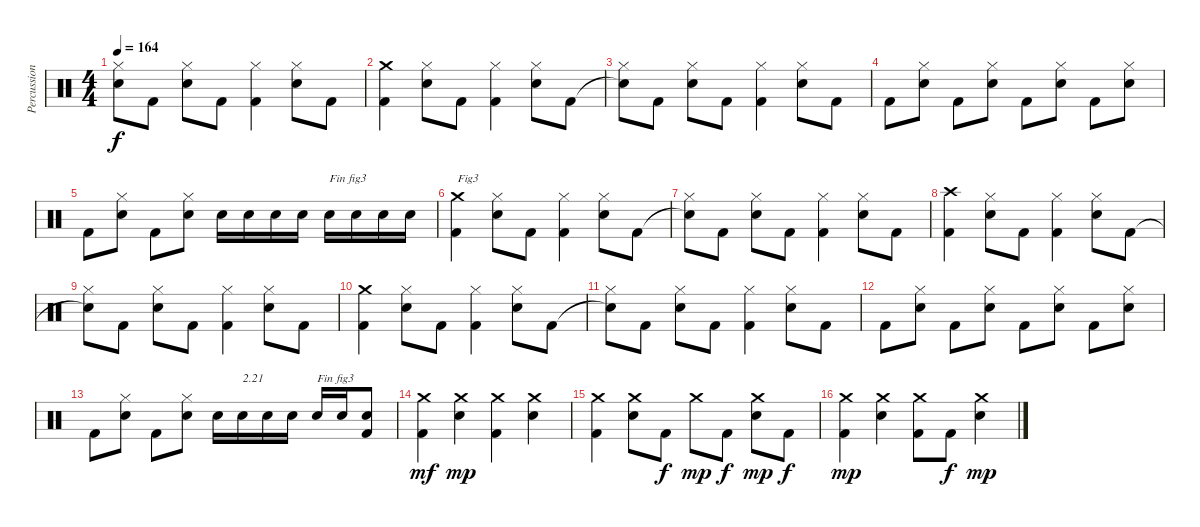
\track ("Percussions" "Percussion") {instrument percussion}
\staff {score}
\articulation defaults
\ts (4 4)
\tempo 164
\clef neutral
\ks c
("Snare (hit)"{t} "Hi-Hat (closed)").8{dy f} "Kick (hit) 2".8 ("Electric Snare (hit)" "Hi-Hat (closed)").8 "Kick (hit) 2".8 ("Kick (hit) 2" "Hi-Hat (closed)").4 ("Electric Snare (hit)" "Hi-Hat (closed)").8 "Kick (hit) 2".8 |
("Kick (hit) 2" "Crash medium (hit)").4 ("Electric Snare (hit)" "Hi-Hat (closed)").8 "Kick (hit) 2".8 ("Kick (hit) 2" "Hi-Hat (closed)").4 ("Electric Snare (hit)" "Hi-Hat (closed)").8 "Kick (hit) 2".8 |
("Snare (hit)"{t} "Hi-Hat (closed)").8 "Kick (hit) 2".8 ("Electric Snare (hit)" "Hi-Hat (closed)").8 "Kick (hit) 2".8 ("Kick (hit) 2" "Hi-Hat (closed)").4 ("Electric Snare (hit)" "Hi-Hat (closed)").8 "Kick (hit) 2".8 |
"Kick (hit) 2".8 ("Electric Snare (hit)" "Hi-Hat (closed)").8 "Kick (hit) 2".8 ("Electric Snare (hit)" "Hi-Hat (closed)").8 "Kick (hit) 2".8 ("Electric Snare (hit)" "Hi-Hat (closed)").8 "Kick (hit) 2".8 ("Electric Snare (hit)" "Hi-Hat (closed)").8 |
"Kick (hit) 2".8 ("Electric Snare (hit)" "Hi-Hat (closed)").8 "Kick (hit) 2".8 ("Electric Snare (hit)" "Hi-Hat (closed)").8 "Electric Snare (hit)".16 "Electric Snare (hit)".16 "Electric Snare (hit)".16 "Electric Snare (hit)".16 "Electric Snare (hit)".16{txt "Fin fig3"} "Electric Snare (hit)".16 "Electric Snare (hit)".16 "Electric Snare (hit)".16 |
("Kick (hit) 2" "Crash medium (hit)").4{txt "Fig3"} ("Electric Snare (hit)" "Hi-Hat (closed)").8 "Kick (hit) 2".8 ("Kick (hit) 2" "Hi-Hat (closed)").4 ("Electric Snare (hit)" "Hi-Hat (closed)").8 "Kick (hit) 2".8 |
("Snare (hit)"{t} "Hi-Hat (closed)").8 "Kick (hit) 2".8 ("Electric Snare (hit)" "Hi-Hat (closed)").8 "Kick (hit) 2".8 ("Kick (hit) 2" "Hi-Hat (closed)").4 ("Electric Snare (hit)" "Hi-Hat (closed)").8 "Kick (hit) 2".8 |
("Kick (hit) 2" "Crash high (hit)").4 ("Electric Snare (hit)" "Hi-Hat (closed)").8 "Kick (hit) 2".8 ("Kick (hit) 2" "Hi-Hat (closed)").4 ("Electric Snare (hit)" "Hi-Hat (closed)").8 "Kick (hit) 2".8 |
("Snare (hit)"{t} "Hi-Hat (closed)").8 "Kick (hit) 2".8 ("Electric Snare (hit)" "Hi-Hat (closed)").8 "Kick (hit) 2".8 ("Kick (hit) 2" "Hi-Hat (closed)").4 ("Electric Snare (hit)" "Hi-Hat (closed)").8 "Kick (hit) 2".8 |
("Kick (hit) 2" "Crash medium (hit)").4 ("Electric Snare (hit)" "Hi-Hat (closed)").8 "Kick (hit) 2".8 ("Kick (hit) 2" "Hi-Hat (closed)").4 ("Electric Snare (hit)" "Hi-Hat (closed)").8 "Kick (hit) 2".8 |
("Snare (hit)"{t} "Hi-Hat (closed)").8 "Kick (hit) 2".8 ("Electric Snare (hit)" "Hi-Hat (closed)").8 "Kick (hit) 2".8 ("Kick (hit) 2" "Hi-Hat (closed)").4 ("Electric Snare (hit)" "Hi-Hat (closed)").8 "Kick (hit) 2".8 |
"Kick (hit) 2".8 ("Electric Snare (hit)" "Hi-Hat (closed)").8 "Kick (hit) 2".8 ("Electric Snare (hit)" "Hi-Hat (closed)").8 "Kick (hit) 2".8 ("Electric Snare (hit)" "Hi-Hat (closed)").8 "Kick (hit) 2".8 ("Electric Snare (hit)" "Hi-Hat (closed)").8 |
"Kick (hit) 2".8 ("Electric Snare (hit)" "Hi-Hat (closed)").8 "Kick (hit) 2".8 ("Electric Snare (hit)" "Hi-Hat (closed)").8 "Electric Snare (hit)".16 "Electric Snare (hit)".16{txt "2.21"} "Electric Snare (hit)".16 "Electric Snare (hit)".16 "Electric Snare (hit)".16{txt "Fin fig3"} "Electric Snare (hit)".16 ("Kick (hit) 2" "Electric Snare (hit)").8 |
("Kick (hit) 2" "Crash medium (hit)").4{dy mf} ("Electric Snare (hit)" "Crash medium (hit)").4{dy mp} ("Kick (hit) 2" "Crash medium (hit)").4 ("Electric Snare (hit)" "Crash medium (hit)").4 |
("Kick (hit) 2" "Crash medium (hit)").4 ("Electric Snare (hit)" "Crash medium (hit)").8 "Kick (hit) 2".8{dy f} "Crash medium (hit)".8{dy mp} "Kick (hit) 2".8{dy f} ("Electric Snare (hit)" "Crash medium (hit)").8{dy mp} "Kick (hit) 2".8{dy f} |
("Kick (hit) 2" "Crash medium (hit)").4{dy mp} ("Electric Snare (hit)" "Crash medium (hit)").4 ("Kick (hit) 2" "Crash medium (hit)").8 "Kick (hit) 2".8{dy f} ("Electric Snare (hit)" "Crash medium (hit)").4{dy mp}
